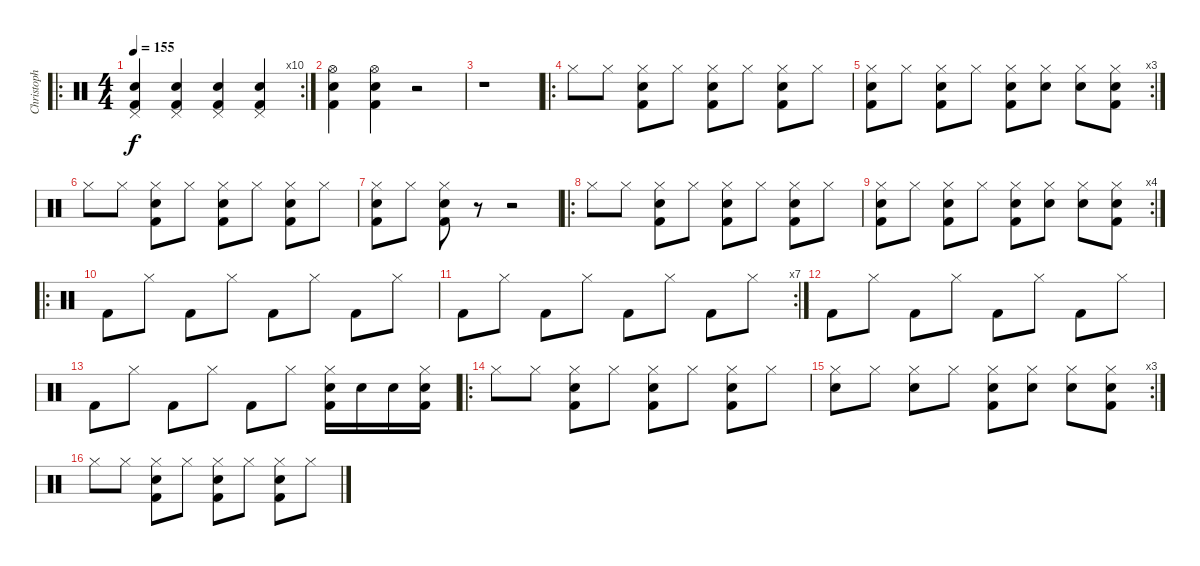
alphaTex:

\track ("Christoph Schneider" "Christoph ") {instrument percussion}
\staff {score}
\articulation defaults
\ro
\rc 10
\ts (4 4)
\tempo 155
\clef neutral
\ks c
("Snare (hit) 2" "Pedal Hi-Hat (hit)" "Kick (hit) 2").4{dy f} ("Snare (hit) 2" "Pedal Hi-Hat (hit)" "Kick (hit) 2").4 ("Snare (hit) 2" "Pedal Hi-Hat (hit)" "Kick (hit) 2").4 ("Snare (hit) 2" "Pedal Hi-Hat (hit)" "Kick (hit) 2").4 |
("Snare (hit) 2" "Hi-Hat (open)" "Kick (hit) 2").4 ("Snare (hit) 2" "Hi-Hat (open)" "Kick (hit) 2").4 r.2 |
r.1 |
\ro "Hi-Hat (closed)".8 "Hi-Hat (closed)".8
("Hi-Hat (closed)" "Snare (hit) 2" "Kick (hit) 2").8 "Hi-Hat (closed)".8 ("Hi-Hat (closed)" "Snare (hit) 2" "Kick (hit) 2").8 "Hi-Hat (closed)".8 ("Hi-Hat (closed)" "Snare (hit) 2" "Kick (hit) 2").8 "Hi-Hat (closed)".8 |
\rc 3
("Hi-Hat (closed)" "Snare (hit) 2" "Kick (hit) 2").8 "Hi-Hat (closed)".8 ("Hi-Hat (closed)" "Snare (hit) 2" "Kick (hit) 2").8 "Hi-Hat (closed)".8 ("Hi-Hat (closed)" "Snare (hit) 2" "Kick (hit) 2").8 ("Hi-Hat (closed)" "Snare (hit) 2").8 ("Hi-Hat (closed)" "Snare (hit) 2").8 ("Hi-Hat (closed)" "Snare (hit) 2" "Kick (hit) 2").8 |
"Hi-Hat (closed)".8 "Hi-Hat (closed)".8 ("Hi-Hat (closed)" "Snare (hit) 2" "Kick (hit) 2").8 "Hi-Hat (closed)".8 ("Hi-Hat (closed)" "Snare (hit) 2" "Kick (hit) 2").8 "Hi-Hat (closed)".8 ("Hi-Hat (closed)" "Snare (hit) 2" "Kick (hit) 2").8 "Hi-Hat (closed)".8 |
("Hi-Hat (closed)" "Snare (hit) 2" "Kick (hit) 2").8 "Hi-Hat (closed)".8 ("Hi-Hat (closed)" "Snare (hit) 2" "Kick (hit) 2").8 r.8 r.2 |
\ro "Hi-Hat (closed)".8 "Hi-Hat (closed)".8
("Hi-Hat (closed)" "Snare (hit) 2" "Kick (hit) 2").8 "Hi-Hat (closed)".8 ("Hi-Hat (closed)" "Snare (hit) 2" "Kick (hit) 2").8 "Hi-Hat (closed)".8 ("Hi-Hat (closed)" "Snare (hit) 2" "Kick (hit) 2").8 "Hi-Hat (closed)".8 |
\rc 4
("Hi-Hat (closed)" "Snare (hit) 2" "Kick (hit) 2").8 "Hi-Hat (closed)".8 ("Hi-Hat (closed)" "Snare (hit) 2" "Kick (hit) 2").8 "Hi-Hat (closed)".8 ("Hi-Hat (closed)" "Snare (hit) 2" "Kick (hit) 2").8 ("Hi-Hat (closed)" "Snare (hit) 2").8 ("Hi-Hat (closed)" "Snare (hit) 2").8 ("Hi-Hat (closed)" "Snare (hit) 2" "Kick (hit) 2").8 |
\ro "Kick (hit) 2".8 "Hi-Hat (closed)".8 "Kick (hit) 2".8 "Hi-Hat (closed)".8 "Kick (hit) 2".8 "Hi-Hat (closed)".8 "Kick (hit) 2".8 "Hi-Hat (closed)".8
|
\rc 7 "Kick (hit) 2".8 "Hi-Hat (closed)".8 "Kick (hit) 2".8 "Hi-Hat (closed)".8 "Kick (hit) 2".8 "Hi-Hat (closed)".8 "Kick (hit) 2".8 "Hi-Hat (closed)".8
|
"Kick (hit) 2".8 "Hi-Hat (closed)".8 "Kick (hit) 2".8 "Hi-Hat (closed)".8 "Kick (hit) 2".8 "Hi-Hat (closed)".8 "Kick (hit) 2".8 "Hi-Hat (closed)".8 |
"Kick (hit) 2".8 "Hi-Hat (closed)".8 "Kick (hit) 2".8 "Hi-Hat (closed)".8 "Kick (hit) 2".8 "Hi-Hat (closed)".8 ("Hi-Hat (closed)" "Snare (hit) 2" "Kick (hit) 2").16 "Snare (hit) 2".16 "Snare (hit) 2".16 ("Hi-Hat (closed)" "Snare (hit) 2" "Kick (hit) 2").16 |
\ro "Hi-Hat (closed)".8 "Hi-Hat (closed)".8
("Hi-Hat (closed)" "Snare (hit) 2" "Kick (hit) 2").8 "Hi-Hat (closed)".8 ("Hi-Hat (closed)" "Snare (hit) 2" "Kick (hit) 2").8 "Hi-Hat (closed)".8 ("Hi-Hat (closed)" "Snare (hit) 2" "Kick (hit) 2").8 "Hi-Hat (closed)".8 |
\rc 3
("Hi-Hat (closed)" "Snare (hit) 2").8 "Hi-Hat (closed)".8 ("Hi-Hat (closed)" "Snare (hit) 2").8 "Hi-Hat (closed)".8 ("Hi-Hat (closed)" "Snare (hit) 2" "Kick (hit) 2").8 ("Hi-Hat (closed)" "Snare (hit) 2").8 ("Hi-Hat (closed)" "Snare (hit) 2").8 ("Hi-Hat (closed)" "Snare (hit) 2" "Kick (hit) 2").8 |
"Hi-Hat (closed)".8 "Hi-Hat (closed)".8 ("Hi-Hat (closed)" "Snare (hit) 2" "Kick (hit) 2").8 "Hi-Hat (closed)".8 ("Hi-Hat (closed)" "Snare (hit) 2" "Kick (hit) 2").8 "Hi-Hat (closed)".8 ("Hi-Hat (closed)" "Snare (hit) 2" "Kick (hit) 2").8 "Hi-Hat (closed)".8
